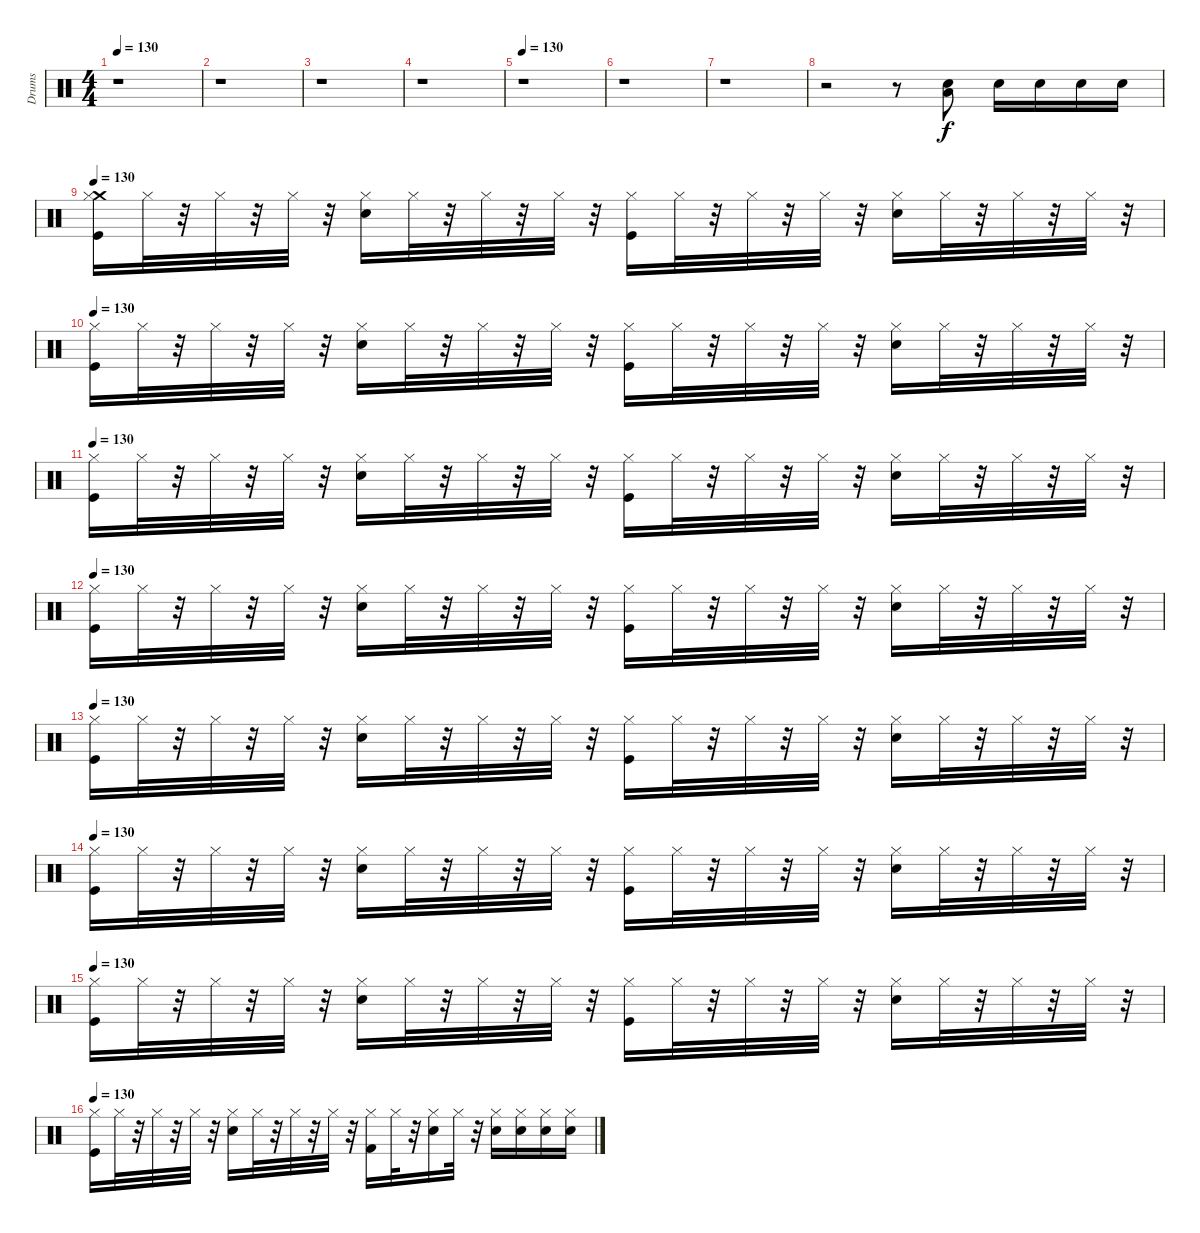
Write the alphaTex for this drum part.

\track ("Drums" "Drums") {instrument percussion}
\staff {score}
\articulation defaults
\ts (4 4)
\tempo 130
\clef neutral
\ks c
r.1{dy f} |
r.1 |
r.1 |
r.1 |
\tempo 130
r.1 |
r.1 |
r.1 |
r.2 r.8 ("Snare (hit) 2" "Low Floor Tom (hit)").8 "Snare (hit) 2".16 "Snare (hit) 2".16 "Snare (hit) 2".16 "Snare (hit) 2".16 |
\tempo 130
("Crash medium (hit)" "Hi-Hat (closed)" "Kick (hit)").16 "Hi-Hat (closed)".32 r.32 "Hi-Hat (closed)".32 r.32 "Hi-Hat (closed)".32 r.32 ("Hi-Hat (closed)" "Snare (hit) 2").16 "Hi-Hat (closed)".32 r.32 "Hi-Hat (closed)".32 r.32 "Hi-Hat (closed)".32 r.32 ("Hi-Hat (closed)" "Kick (hit)").16 "Hi-Hat (closed)".32 r.32 "Hi-Hat (closed)".32 r.32 "Hi-Hat (closed)".32 r.32 ("Hi-Hat (closed)" "Snare (hit) 2").16 "Hi-Hat (closed)".32 r.32 "Hi-Hat (closed)".32 r.32 "Hi-Hat (closed)".32 r.32 |
\tempo 130
("Hi-Hat (closed)" "Kick (hit)").16 "Hi-Hat (closed)".32 r.32 "Hi-Hat (closed)".32 r.32 "Hi-Hat (closed)".32 r.32 ("Hi-Hat (closed)" "Snare (hit) 2").16 "Hi-Hat (closed)".32 r.32 "Hi-Hat (closed)".32 r.32 "Hi-Hat (closed)".32 r.32 ("Hi-Hat (closed)" "Kick (hit)").16 "Hi-Hat (closed)".32 r.32 "Hi-Hat (closed)".32 r.32 "Hi-Hat (closed)".32 r.32 ("Hi-Hat (closed)" "Snare (hit) 2").16 "Hi-Hat (closed)".32 r.32 "Hi-Hat (closed)".32 r.32 "Hi-Hat (closed)".32 r.32 |
\tempo 130
("Hi-Hat (closed)" "Kick (hit)").16 "Hi-Hat (closed)".32 r.32 "Hi-Hat (closed)".32 r.32 "Hi-Hat (closed)".32 r.32 ("Hi-Hat (closed)" "Snare (hit) 2").16 "Hi-Hat (closed)".32 r.32 "Hi-Hat (closed)".32 r.32 "Hi-Hat (closed)".32 r.32 ("Hi-Hat (closed)" "Kick (hit)").16 "Hi-Hat (closed)".32 r.32 "Hi-Hat (closed)".32 r.32 "Hi-Hat (closed)".32 r.32 ("Hi-Hat (closed)" "Snare (hit) 2").16 "Hi-Hat (closed)".32 r.32 "Hi-Hat (closed)".32 r.32 "Hi-Hat (closed)".32 r.32 |
\tempo 130
("Hi-Hat (closed)" "Kick (hit)").16 "Hi-Hat (closed)".32 r.32 "Hi-Hat (closed)".32 r.32 "Hi-Hat (closed)".32 r.32 ("Hi-Hat (closed)" "Snare (hit) 2").16 "Hi-Hat (closed)".32 r.32 "Hi-Hat (closed)".32 r.32 "Hi-Hat (closed)".32 r.32 ("Hi-Hat (closed)" "Kick (hit)").16 "Hi-Hat (closed)".32 r.32 "Hi-Hat (closed)".32 r.32 "Hi-Hat (closed)".32 r.32 ("Hi-Hat (closed)" "Snare (hit) 2").16 "Hi-Hat (closed)".32 r.32 "Hi-Hat (closed)".32 r.32 "Hi-Hat (closed)".32 r.32 |
\tempo 130
("Hi-Hat (closed)" "Kick (hit)").16 "Hi-Hat (closed)".32 r.32 "Hi-Hat (closed)".32 r.32 "Hi-Hat (closed)".32 r.32 ("Hi-Hat (closed)" "Snare (hit) 2").16 "Hi-Hat (closed)".32 r.32 "Hi-Hat (closed)".32 r.32 "Hi-Hat (closed)".32 r.32 ("Hi-Hat (closed)" "Kick (hit)").16 "Hi-Hat (closed)".32 r.32 "Hi-Hat (closed)".32 r.32 "Hi-Hat (closed)".32 r.32 ("Hi-Hat (closed)" "Snare (hit) 2").16 "Hi-Hat (closed)".32 r.32 "Hi-Hat (closed)".32 r.32 "Hi-Hat (closed)".32 r.32 |
\tempo 130
("Hi-Hat (closed)" "Kick (hit)").16 "Hi-Hat (closed)".32 r.32 "Hi-Hat (closed)".32 r.32 "Hi-Hat (closed)".32 r.32 ("Hi-Hat (closed)" "Snare (hit) 2").16 "Hi-Hat (closed)".32 r.32 "Hi-Hat (closed)".32 r.32 "Hi-Hat (closed)".32 r.32 ("Hi-Hat (closed)" "Kick (hit)").16 "Hi-Hat (closed)".32 r.32 "Hi-Hat (closed)".32 r.32 "Hi-Hat (closed)".32 r.32 ("Hi-Hat (closed)" "Snare (hit) 2").16 "Hi-Hat (closed)".32 r.32 "Hi-Hat (closed)".32 r.32 "Hi-Hat (closed)".32 r.32 |
\tempo 130
("Hi-Hat (closed)" "Kick (hit)").16 "Hi-Hat (closed)".32 r.32 "Hi-Hat (closed)".32 r.32 "Hi-Hat (closed)".32 r.32 ("Hi-Hat (closed)" "Snare (hit) 2").16 "Hi-Hat (closed)".32 r.32 "Hi-Hat (closed)".32 r.32 "Hi-Hat (closed)".32 r.32 ("Hi-Hat (closed)" "Kick (hit)").16 "Hi-Hat (closed)".32 r.32 "Hi-Hat (closed)".32 r.32 "Hi-Hat (closed)".32 r.32 ("Hi-Hat (closed)" "Snare (hit) 2").16 "Hi-Hat (closed)".32 r.32 "Hi-Hat (closed)".32 r.32 "Hi-Hat (closed)".32 r.32 |
\tempo 130
("Hi-Hat (closed)" "Kick (hit)").16 "Hi-Hat (closed)".32 r.32 "Hi-Hat (closed)".32 r.32 "Hi-Hat (closed)".32 r.32 ("Hi-Hat (closed)" "Snare (hit) 2").16 "Hi-Hat (closed)".32 r.32 "Hi-Hat (closed)".32 r.32 "Hi-Hat (closed)".32 r.32 ("Kick (hit) 2" "Hi-Hat (closed)").16 "Hi-Hat (closed)".32 r.32 ("Snare (hit) 2" "Hi-Hat (closed)").16 "Hi-Hat (closed)".32 r.32 ("Snare (hit) 2" "Hi-Hat (closed)").16 ("Snare (hit) 2" "Hi-Hat (closed)").16 ("Snare (hit) 2" "Hi-Hat (closed)").16 ("Snare (hit) 2" "Hi-Hat (closed)").16
